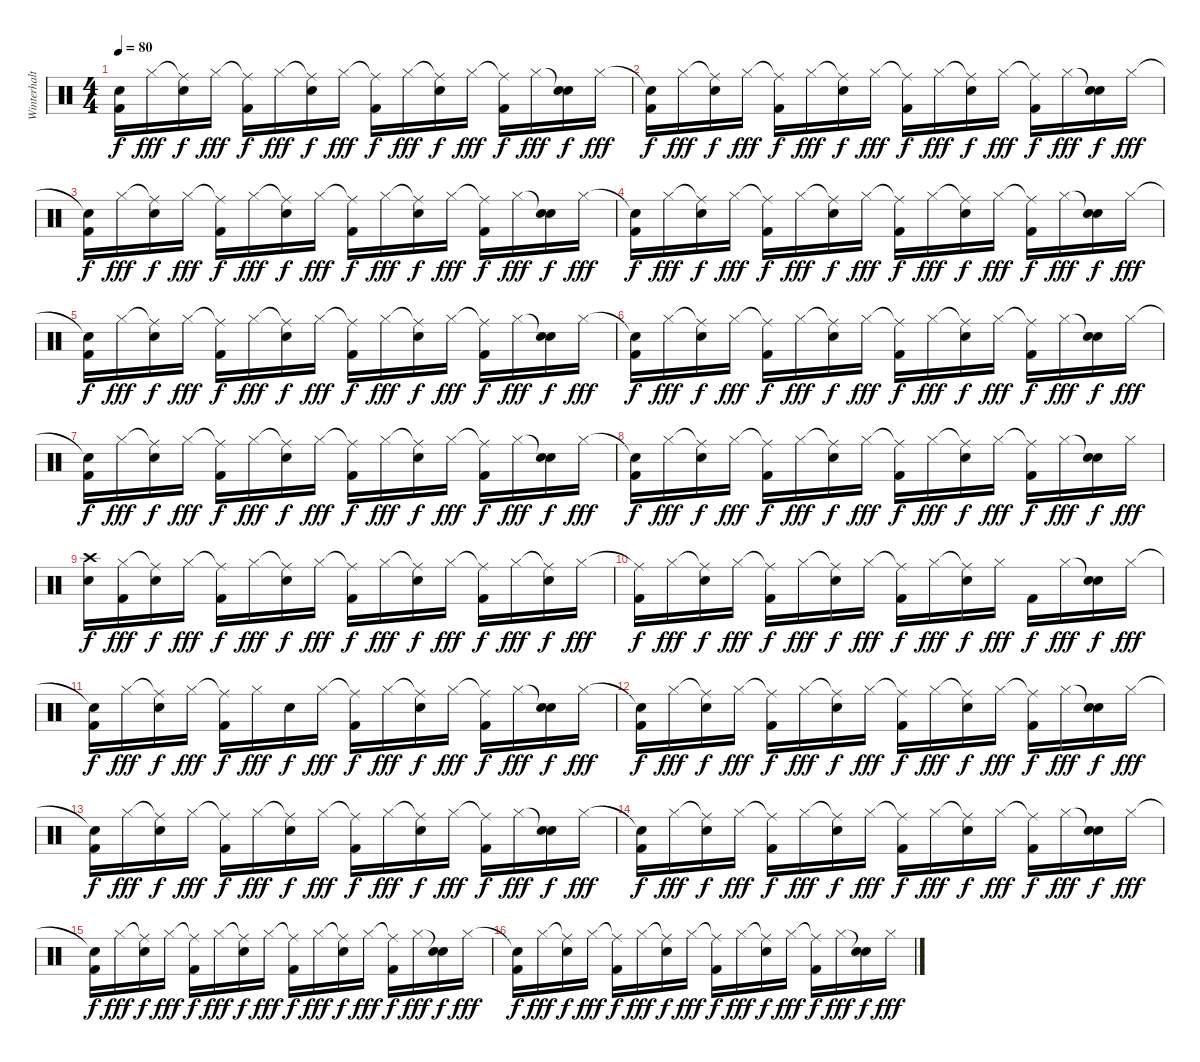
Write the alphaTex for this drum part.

\track ("Winterhalten" "Winterhalt") {instrument percussion}
\staff {score}
\articulation defaults
\ts (4 4)
\tempo 80
\clef neutral
\ks c
("Snare (hit)"{t} "Kick (hit) 2").16{dy f} "Hi-Hat (closed)".16{dy fff} ("Ride (middle)"{t} "Snare (hit) 2").16{dy f} "Hi-Hat (closed)".16{dy fff} ("Ride (middle)"{t} "Kick (hit) 2").16{dy f} "Hi-Hat (closed)".16{dy fff} ("Ride (middle)"{t} "Snare (hit) 2").16{dy f} "Hi-Hat (closed)".16{dy fff} ("Ride (middle)"{t} "Kick (hit) 2").16{dy f} "Hi-Hat (closed)".16{dy fff} ("Ride (middle)"{t} "Snare (hit) 2").16{dy f} "Hi-Hat (closed)".16{dy fff} ("Ride (middle)"{t} "Kick (hit) 2").16{dy f} "Hi-Hat (closed)".16{dy fff} ("Snare (hit)"{t} "Snare (hit) 2").16{dy f} "Hi-Hat (closed)".16{dy fff} |
("Snare (hit)"{t} "Kick (hit) 2").16{dy f} "Hi-Hat (closed)".16{dy fff} ("Ride (middle)"{t} "Snare (hit) 2").16{dy f} "Hi-Hat (closed)".16{dy fff} ("Ride (middle)"{t} "Kick (hit) 2").16{dy f} "Hi-Hat (closed)".16{dy fff} ("Ride (middle)"{t} "Snare (hit) 2").16{dy f} "Hi-Hat (closed)".16{dy fff} ("Ride (middle)"{t} "Kick (hit) 2").16{dy f} "Hi-Hat (closed)".16{dy fff} ("Ride (middle)"{t} "Snare (hit) 2").16{dy f} "Hi-Hat (closed)".16{dy fff} ("Ride (middle)"{t} "Kick (hit) 2").16{dy f} "Hi-Hat (closed)".16{dy fff} ("Snare (hit)"{t} "Snare (hit) 2").16{dy f} "Hi-Hat (closed)".16{dy fff} |
("Snare (hit)"{t} "Kick (hit) 2").16{dy f} "Hi-Hat (closed)".16{dy fff} ("Ride (middle)"{t} "Snare (hit) 2").16{dy f} "Hi-Hat (closed)".16{dy fff} ("Ride (middle)"{t} "Kick (hit) 2").16{dy f} "Hi-Hat (closed)".16{dy fff} ("Ride (middle)"{t} "Snare (hit) 2").16{dy f} "Hi-Hat (closed)".16{dy fff} ("Ride (middle)"{t} "Kick (hit) 2").16{dy f} "Hi-Hat (closed)".16{dy fff} ("Ride (middle)"{t} "Snare (hit) 2").16{dy f} "Hi-Hat (closed)".16{dy fff} ("Ride (middle)"{t} "Kick (hit) 2").16{dy f} "Hi-Hat (closed)".16{dy fff} ("Snare (hit)"{t} "Snare (hit) 2").16{dy f} "Hi-Hat (closed)".16{dy fff} |
("Snare (hit)"{t} "Kick (hit) 2").16{dy f} "Hi-Hat (closed)".16{dy fff} ("Ride (middle)"{t} "Snare (hit) 2").16{dy f} "Hi-Hat (closed)".16{dy fff} ("Ride (middle)"{t} "Kick (hit) 2").16{dy f} "Hi-Hat (closed)".16{dy fff} ("Ride (middle)"{t} "Snare (hit) 2").16{dy f} "Hi-Hat (closed)".16{dy fff} ("Ride (middle)"{t} "Kick (hit) 2").16{dy f} "Hi-Hat (closed)".16{dy fff} ("Ride (middle)"{t} "Snare (hit) 2").16{dy f} "Hi-Hat (closed)".16{dy fff} ("Ride (middle)"{t} "Kick (hit) 2").16{dy f} "Hi-Hat (closed)".16{dy fff} ("Snare (hit)"{t} "Snare (hit) 2").16{dy f} "Hi-Hat (closed)".16{dy fff} |
("Snare (hit)"{t} "Kick (hit) 2").16{dy f} "Hi-Hat (closed)".16{dy fff} ("Ride (middle)"{t} "Snare (hit) 2").16{dy f} "Hi-Hat (closed)".16{dy fff} ("Ride (middle)"{t} "Kick (hit) 2").16{dy f} "Hi-Hat (closed)".16{dy fff} ("Ride (middle)"{t} "Snare (hit) 2").16{dy f} "Hi-Hat (closed)".16{dy fff} ("Ride (middle)"{t} "Kick (hit) 2").16{dy f} "Hi-Hat (closed)".16{dy fff} ("Ride (middle)"{t} "Snare (hit) 2").16{dy f} "Hi-Hat (closed)".16{dy fff} ("Ride (middle)"{t} "Kick (hit) 2").16{dy f} "Hi-Hat (closed)".16{dy fff} ("Snare (hit)"{t} "Snare (hit) 2").16{dy f} "Hi-Hat (closed)".16{dy fff} |
("Snare (hit)"{t} "Kick (hit) 2").16{dy f} "Hi-Hat (closed)".16{dy fff} ("Ride (middle)"{t} "Snare (hit) 2").16{dy f} "Hi-Hat (closed)".16{dy fff} ("Ride (middle)"{t} "Kick (hit) 2").16{dy f} "Hi-Hat (closed)".16{dy fff} ("Ride (middle)"{t} "Snare (hit) 2").16{dy f} "Hi-Hat (closed)".16{dy fff} ("Ride (middle)"{t} "Kick (hit) 2").16{dy f} "Hi-Hat (closed)".16{dy fff} ("Ride (middle)"{t} "Snare (hit) 2").16{dy f} "Hi-Hat (closed)".16{dy fff} ("Ride (middle)"{t} "Kick (hit) 2").16{dy f} "Hi-Hat (closed)".16{dy fff} ("Snare (hit)"{t} "Snare (hit) 2").16{dy f} "Hi-Hat (closed)".16{dy fff} |
("Snare (hit)"{t} "Kick (hit) 2").16{dy f} "Hi-Hat (closed)".16{dy fff} ("Ride (middle)"{t} "Snare (hit) 2").16{dy f} "Hi-Hat (closed)".16{dy fff} ("Ride (middle)"{t} "Kick (hit) 2").16{dy f} "Hi-Hat (closed)".16{dy fff} ("Ride (middle)"{t} "Snare (hit) 2").16{dy f} "Hi-Hat (closed)".16{dy fff} ("Ride (middle)"{t} "Kick (hit) 2").16{dy f} "Hi-Hat (closed)".16{dy fff} ("Ride (middle)"{t} "Snare (hit) 2").16{dy f} "Hi-Hat (closed)".16{dy fff} ("Ride (middle)"{t} "Kick (hit) 2").16{dy f} "Hi-Hat (closed)".16{dy fff} ("Snare (hit)"{t} "Snare (hit) 2").16{dy f} "Hi-Hat (closed)".16{dy fff} |
("Snare (hit)"{t} "Kick (hit) 2").16{dy f} "Hi-Hat (closed)".16{dy fff} ("Ride (middle)"{t} "Snare (hit) 2").16{dy f} "Hi-Hat (closed)".16{dy fff} ("Ride (middle)"{t} "Kick (hit) 2").16{dy f} "Hi-Hat (closed)".16{dy fff} ("Ride (middle)"{t} "Snare (hit) 2").16{dy f} "Hi-Hat (closed)".16{dy fff} ("Ride (middle)"{t} "Kick (hit) 2").16{dy f} "Hi-Hat (closed)".16{dy fff} ("Ride (middle)"{t} "Snare (hit) 2").16{dy f} "Hi-Hat (closed)".16{dy fff} ("Ride (middle)"{t} "Kick (hit) 2").16{dy f} "Hi-Hat (closed)".16{dy fff} ("Snare (hit)"{t} "Snare (hit) 2").16{dy f} "Hi-Hat (closed)".16{dy fff} |
("Crash high (hit)" "Snare (hit) 2").16{dy f} ("Hi-Hat (closed)" "Kick (hit) 2").16{dy fff} ("Ride (middle)"{t} "Snare (hit) 2").16{dy f} "Hi-Hat (closed)".16{dy fff} ("Ride (middle)"{t} "Kick (hit) 2").16{dy f} "Hi-Hat (closed)".16{dy fff} ("Ride (middle)"{t} "Snare (hit) 2").16{dy f} "Hi-Hat (closed)".16{dy fff} ("Ride (middle)"{t} "Kick (hit) 2").16{dy f} "Hi-Hat (closed)".16{dy fff} ("Ride (middle)"{t} "Snare (hit) 2").16{dy f} "Hi-Hat (closed)".16{dy fff} ("Ride (middle)"{t} "Kick (hit) 2").16{dy f} "Hi-Hat (closed)".16{dy fff} ("Ride (middle)"{t} "Snare (hit) 2").16{dy f} "Hi-Hat (closed)".16{dy fff} |
("Ride (middle)"{t} "Kick (hit) 2").16{dy f} "Hi-Hat (closed)".16{dy fff} ("Ride (middle)"{t} "Snare (hit) 2").16{dy f} "Hi-Hat (closed)".16{dy fff} ("Ride (middle)"{t} "Kick (hit) 2").16{dy f} "Hi-Hat (closed)".16{dy fff} ("Ride (middle)"{t} "Snare (hit) 2").16{dy f} "Hi-Hat (closed)".16{dy fff} ("Ride (middle)"{t} "Kick (hit) 2").16{dy f} "Hi-Hat (closed)".16{dy fff} ("Ride (middle)"{t} "Snare (hit) 2").16{dy f} "Hi-Hat (closed)".16{dy fff} "Kick (hit) 2".16{dy f} "Hi-Hat (closed)".16{dy fff} ("Snare (hit)"{t} "Snare (hit) 2").16{dy f} "Hi-Hat (closed)".16{dy fff} |
("Snare (hit)"{t} "Kick (hit) 2").16{dy f} "Hi-Hat (closed)".16{dy fff} ("Ride (middle)"{t} "Snare (hit) 2").16{dy f} "Hi-Hat (closed)".16{dy fff} ("Ride (middle)"{t} "Kick (hit) 2").16{dy f} "Hi-Hat (closed)".16{dy fff} "Snare (hit) 2".16{dy f} "Hi-Hat (closed)".16{dy fff} ("Ride (middle)"{t} "Kick (hit) 2").16{dy f} "Hi-Hat (closed)".16{dy fff} ("Ride (middle)"{t} "Snare (hit) 2").16{dy f} "Hi-Hat (closed)".16{dy fff} ("Ride (middle)"{t} "Kick (hit) 2").16{dy f} "Hi-Hat (closed)".16{dy fff} ("Snare (hit)"{t} "Snare (hit) 2").16{dy f} "Hi-Hat (closed)".16{dy fff} |
("Snare (hit)"{t} "Kick (hit) 2").16{dy f} "Hi-Hat (closed)".16{dy fff} ("Ride (middle)"{t} "Snare (hit) 2").16{dy f} "Hi-Hat (closed)".16{dy fff} ("Ride (middle)"{t} "Kick (hit) 2").16{dy f} "Hi-Hat (closed)".16{dy fff} ("Ride (middle)"{t} "Snare (hit) 2").16{dy f} "Hi-Hat (closed)".16{dy fff} ("Ride (middle)"{t} "Kick (hit) 2").16{dy f} "Hi-Hat (closed)".16{dy fff} ("Ride (middle)"{t} "Snare (hit) 2").16{dy f} "Hi-Hat (closed)".16{dy fff} ("Ride (middle)"{t} "Kick (hit) 2").16{dy f} "Hi-Hat (closed)".16{dy fff} ("Snare (hit)"{t} "Snare (hit) 2").16{dy f} "Hi-Hat (closed)".16{dy fff} |
("Snare (hit)"{t} "Kick (hit) 2").16{dy f} "Hi-Hat (closed)".16{dy fff} ("Ride (middle)"{t} "Snare (hit) 2").16{dy f} "Hi-Hat (closed)".16{dy fff} ("Ride (middle)"{t} "Kick (hit) 2").16{dy f} "Hi-Hat (closed)".16{dy fff} ("Ride (middle)"{t} "Snare (hit) 2").16{dy f} "Hi-Hat (closed)".16{dy fff} ("Ride (middle)"{t} "Kick (hit) 2").16{dy f} "Hi-Hat (closed)".16{dy fff} ("Ride (middle)"{t} "Snare (hit) 2").16{dy f} "Hi-Hat (closed)".16{dy fff} ("Ride (middle)"{t} "Kick (hit) 2").16{dy f} "Hi-Hat (closed)".16{dy fff} ("Snare (hit)"{t} "Snare (hit) 2").16{dy f} "Hi-Hat (closed)".16{dy fff} |
("Snare (hit)"{t} "Kick (hit) 2").16{dy f} "Hi-Hat (closed)".16{dy fff} ("Ride (middle)"{t} "Snare (hit) 2").16{dy f} "Hi-Hat (closed)".16{dy fff} ("Ride (middle)"{t} "Kick (hit) 2").16{dy f} "Hi-Hat (closed)".16{dy fff} ("Ride (middle)"{t} "Snare (hit) 2").16{dy f} "Hi-Hat (closed)".16{dy fff} ("Ride (middle)"{t} "Kick (hit) 2").16{dy f} "Hi-Hat (closed)".16{dy fff} ("Ride (middle)"{t} "Snare (hit) 2").16{dy f} "Hi-Hat (closed)".16{dy fff} ("Ride (middle)"{t} "Kick (hit) 2").16{dy f} "Hi-Hat (closed)".16{dy fff} ("Snare (hit)"{t} "Snare (hit) 2").16{dy f} "Hi-Hat (closed)".16{dy fff} |
("Snare (hit)"{t} "Kick (hit) 2").16{dy f} "Hi-Hat (closed)".16{dy fff} ("Ride (middle)"{t} "Snare (hit) 2").16{dy f} "Hi-Hat (closed)".16{dy fff} ("Ride (middle)"{t} "Kick (hit) 2").16{dy f} "Hi-Hat (closed)".16{dy fff} ("Ride (middle)"{t} "Snare (hit) 2").16{dy f} "Hi-Hat (closed)".16{dy fff} ("Ride (middle)"{t} "Kick (hit) 2").16{dy f} "Hi-Hat (closed)".16{dy fff} ("Ride (middle)"{t} "Snare (hit) 2").16{dy f} "Hi-Hat (closed)".16{dy fff} ("Ride (middle)"{t} "Kick (hit) 2").16{dy f} "Hi-Hat (closed)".16{dy fff} ("Snare (hit)"{t} "Snare (hit) 2").16{dy f} "Hi-Hat (closed)".16{dy fff} |
("Snare (hit)"{t} "Kick (hit) 2").16{dy f} "Hi-Hat (closed)".16{dy fff} ("Ride (middle)"{t} "Snare (hit) 2").16{dy f} "Hi-Hat (closed)".16{dy fff} ("Ride (middle)"{t} "Kick (hit) 2").16{dy f} "Hi-Hat (closed)".16{dy fff} ("Ride (middle)"{t} "Snare (hit) 2").16{dy f} "Hi-Hat (closed)".16{dy fff} ("Ride (middle)"{t} "Kick (hit) 2").16{dy f} "Hi-Hat (closed)".16{dy fff} ("Ride (middle)"{t} "Snare (hit) 2").16{dy f} "Hi-Hat (closed)".16{dy fff} ("Ride (middle)"{t} "Kick (hit) 2").16{dy f} "Hi-Hat (closed)".16{dy fff} ("Snare (hit)"{t} "Snare (hit) 2").16{dy f} "Hi-Hat (closed)".16{dy fff}
